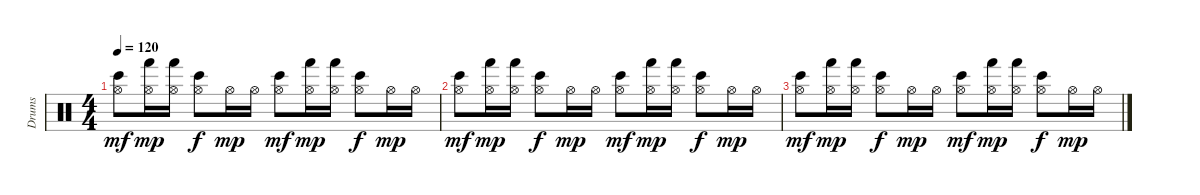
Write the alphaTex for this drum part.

\track ("Drums" "Drums") {instrument percussion}
\staff {score}
\articulation defaults
\ts (4 4)
\tempo 120
\clef neutral
\ks c
("Hi-Hat (open)" "Bongo High (hit)").8{dy mf} ("Hi-Hat (open)" "Hand (hit)").16{dy mp} ("Hi-Hat (open)" "Hand (hit)").16 ("Hi-Hat (open)" "Bongo High (hit)").8{dy f} "Hi-Hat (open)".16{dy mp} "Hi-Hat (open)".16 ("Hi-Hat (open)" "Bongo High (hit)").8{dy mf} ("Hi-Hat (open)" "Hand (hit)").16{dy mp} ("Hi-Hat (open)" "Hand (hit)").16 ("Hi-Hat (open)" "Bongo High (hit)").8{dy f} "Hi-Hat (open)".16{dy mp} "Hi-Hat (open)".16 |
("Hi-Hat (open)" "Bongo High (hit)").8{dy mf} ("Hi-Hat (open)" "Hand (hit)").16{dy mp} ("Hi-Hat (open)" "Hand (hit)").16 ("Hi-Hat (open)" "Bongo High (hit)").8{dy f} "Hi-Hat (open)".16{dy mp} "Hi-Hat (open)".16 ("Hi-Hat (open)" "Bongo High (hit)").8{dy mf} ("Hi-Hat (open)" "Hand (hit)").16{dy mp} ("Hi-Hat (open)" "Hand (hit)").16 ("Hi-Hat (open)" "Bongo High (hit)").8{dy f} "Hi-Hat (open)".16{dy mp} "Hi-Hat (open)".16 |
("Hi-Hat (open)" "Bongo High (hit)").8{dy mf} ("Hi-Hat (open)" "Hand (hit)").16{dy mp} ("Hi-Hat (open)" "Hand (hit)").16 ("Hi-Hat (open)" "Bongo High (hit)").8{dy f} "Hi-Hat (open)".16{dy mp} "Hi-Hat (open)".16 ("Hi-Hat (open)" "Bongo High (hit)").8{dy mf} ("Hi-Hat (open)" "Hand (hit)").16{dy mp} ("Hi-Hat (open)" "Hand (hit)").16 ("Hi-Hat (open)" "Bongo High (hit)").8{dy f} "Hi-Hat (open)".16{dy mp} "Hi-Hat (open)".16
